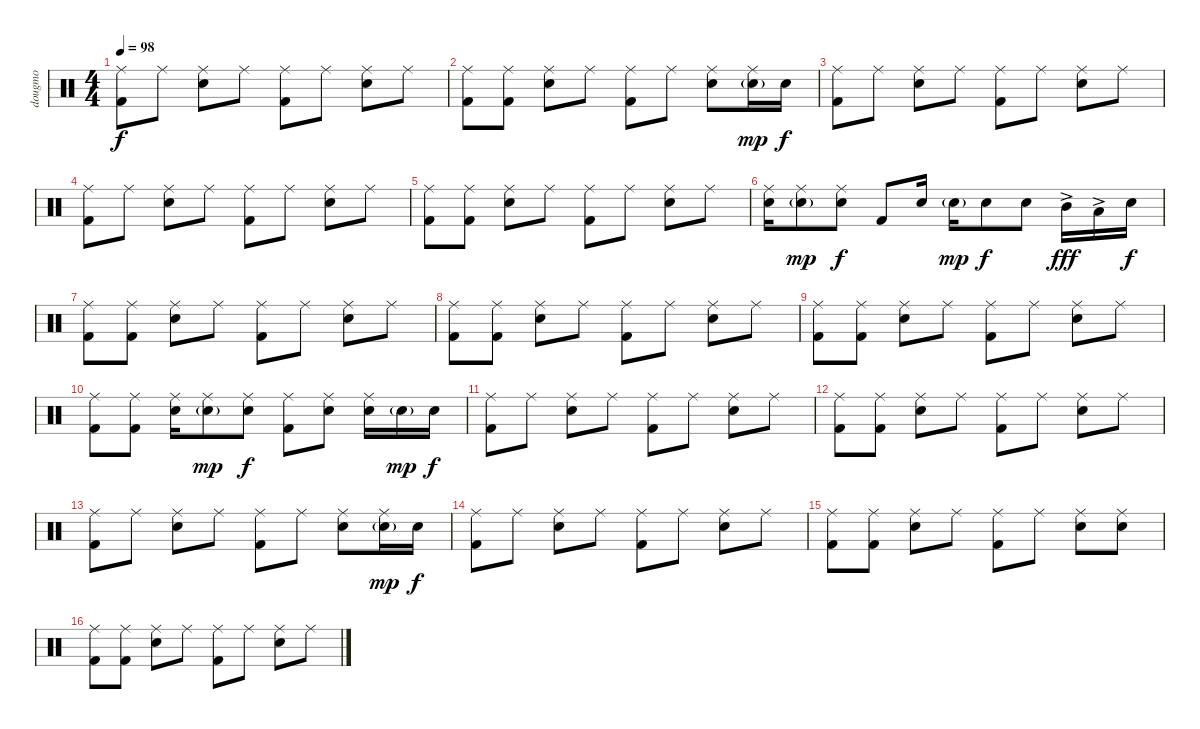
\track ("dougmo" "dougmo") {instrument percussion}
\staff {score}
\articulation defaults
\ts (4 4)
\tempo 98
\clef neutral
\ks c
("Ride (middle)" "Kick (hit) 2").8{dy f} "Ride (middle)".8 ("Ride (middle)" "Electric Snare (hit)").8 "Ride (middle)".8 ("Ride (middle)" "Kick (hit) 2").8 "Ride (middle)".8 ("Ride (middle)" "Electric Snare (hit)").8 "Ride (middle)".8 |
("Ride (middle)" "Kick (hit) 2").8 ("Ride (middle)" "Kick (hit) 2").8 ("Ride (middle)" "Electric Snare (hit)").8 "Ride (middle)".8 ("Ride (middle)" "Kick (hit) 2").8 "Ride (middle)".8 ("Ride (middle)" "Electric Snare (hit)").8 ("Ride (middle)" "Electric Snare (hit)"{g}).16{dy mp} "Electric Snare (hit)".16{dy f} |
("Ride (middle)" "Kick (hit) 2").8 "Ride (middle)".8 ("Ride (middle)" "Electric Snare (hit)").8 "Ride (middle)".8 ("Ride (middle)" "Kick (hit) 2").8 "Ride (middle)".8 ("Ride (middle)" "Electric Snare (hit)").8 "Ride (middle)".8 |
("Ride (middle)" "Kick (hit) 2").8 "Ride (middle)".8 ("Ride (middle)" "Electric Snare (hit)").8 "Ride (middle)".8 ("Ride (middle)" "Kick (hit) 2").8 "Ride (middle)".8 ("Ride (middle)" "Electric Snare (hit)").8 "Ride (middle)".8 |
("Ride (middle)" "Kick (hit) 2").8 ("Ride (middle)" "Kick (hit) 2").8 ("Ride (middle)" "Electric Snare (hit)").8 "Ride (middle)".8 ("Ride (middle)" "Kick (hit) 2").8 "Ride (middle)".8 ("Ride (middle)" "Electric Snare (hit)").8 "Ride (middle)".8 |
("Ride (middle)" "Electric Snare (hit)").16 ("Ride (middle)" "Electric Snare (hit)"{g}).8{dy mp} ("Ride (middle)" "Electric Snare (hit)").8{dy f} "Kick (hit) 2".8 "Electric Snare (hit)".16 "Electric Snare (hit)"{g}.16{dy mp} "Electric Snare (hit)".8{dy f} "Electric Snare (hit)".8 "Mid Tom (hit)"{ac}.16{dy fff} "Low Tom (hit)"{ac}.16 "Electric Snare (hit)".16{dy f} |
("Ride (middle)" "Kick (hit) 2").8 ("Ride (middle)" "Kick (hit) 2").8 ("Ride (middle)" "Electric Snare (hit)").8 "Ride (middle)".8 ("Ride (middle)" "Kick (hit) 2").8 "Ride (middle)".8 ("Ride (middle)" "Electric Snare (hit)").8 "Ride (middle)".8 |
("Ride (middle)" "Kick (hit) 2").8 ("Ride (middle)" "Kick (hit) 2").8 ("Ride (middle)" "Electric Snare (hit)").8 "Ride (middle)".8 ("Ride (middle)" "Kick (hit) 2").8 "Ride (middle)".8 ("Ride (middle)" "Electric Snare (hit)").8 "Ride (middle)".8 |
("Ride (middle)" "Kick (hit) 2").8 ("Ride (middle)" "Kick (hit) 2").8 ("Ride (middle)" "Electric Snare (hit)").8 "Ride (middle)".8 ("Ride (middle)" "Kick (hit) 2").8 "Ride (middle)".8 ("Ride (middle)" "Electric Snare (hit)").8 "Ride (middle)".8 |
("Ride (middle)" "Kick (hit) 2").8 ("Ride (middle)" "Kick (hit) 2").8 ("Ride (middle)" "Electric Snare (hit)").16 ("Ride (middle)" "Electric Snare (hit)"{g}).8{dy mp} ("Ride (middle)" "Electric Snare (hit)").8{dy f} ("Ride (middle)" "Kick (hit) 2").8 ("Ride (middle)" "Electric Snare (hit)").8 ("Ride (middle)" "Electric Snare (hit)").16 "Electric Snare (hit)"{g}.16{dy mp} "Electric Snare (hit)".16{dy f} |
("Ride (middle)" "Kick (hit) 2").8 "Ride (middle)".8 ("Ride (middle)" "Electric Snare (hit)").8 "Ride (middle)".8 ("Ride (middle)" "Kick (hit) 2").8 "Ride (middle)".8 ("Ride (middle)" "Electric Snare (hit)").8 "Ride (middle)".8 |
("Ride (middle)" "Kick (hit) 2").8 ("Ride (middle)" "Kick (hit) 2").8 ("Ride (middle)" "Electric Snare (hit)").8 "Ride (middle)".8 ("Ride (middle)" "Kick (hit) 2").8 "Ride (middle)".8 ("Ride (middle)" "Electric Snare (hit)").8 "Ride (middle)".8 |
("Ride (middle)" "Kick (hit) 2").8 "Ride (middle)".8 ("Ride (middle)" "Electric Snare (hit)").8 "Ride (middle)".8 ("Ride (middle)" "Kick (hit) 2").8 "Ride (middle)".8 ("Ride (middle)" "Electric Snare (hit)").8 ("Ride (middle)" "Electric Snare (hit)"{g}).16{dy mp} "Electric Snare (hit)".16{dy f} |
("Ride (middle)" "Kick (hit) 2").8 "Ride (middle)".8 ("Ride (middle)" "Electric Snare (hit)").8 "Ride (middle)".8 ("Ride (middle)" "Kick (hit) 2").8 "Ride (middle)".8 ("Ride (middle)" "Electric Snare (hit)").8 "Ride (middle)".8 |
("Ride (middle)" "Kick (hit) 2").8 ("Ride (middle)" "Kick (hit) 2").8 ("Ride (middle)" "Electric Snare (hit)").8 "Ride (middle)".8 ("Ride (middle)" "Kick (hit) 2").8 "Ride (middle)".8 ("Ride (middle)" "Electric Snare (hit)").8 ("Ride (middle)" "Electric Snare (hit)").8 |
("Ride (middle)" "Kick (hit) 2").8 ("Ride (middle)" "Kick (hit) 2").8 ("Ride (middle)" "Electric Snare (hit)").8{volume 0} "Ride (middle)".8 ("Ride (middle)" "Kick (hit) 2").8 "Ride (middle)".8 ("Ride (middle)" "Electric Snare (hit)").8 "Ride (middle)".8
